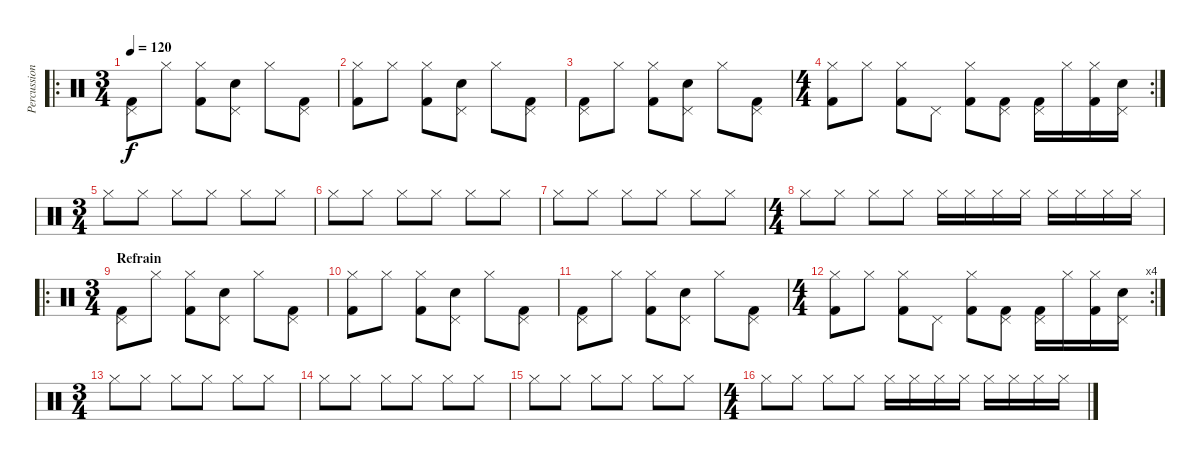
\track ("Percussions" "Percussion") {instrument percussion}
\staff {score}
\articulation defaults
\ro
\ts (3 4)
\tempo 120
\clef neutral
\ks c
("Kick (hit) 2" "Pedal Hi-Hat (hit)").8{dy f} "Hi-Hat (closed)".8 ("Kick (hit) 2" "Hi-Hat (closed)").8 ("Snare (hit) 2" "Pedal Hi-Hat (hit)").8 "Hi-Hat (closed)".8 ("Kick (hit) 2" "Pedal Hi-Hat (hit)").8 |
("Kick (hit) 2" "Hi-Hat (closed)").8 "Hi-Hat (closed)".8 ("Kick (hit) 2" "Hi-Hat (closed)").8 ("Snare (hit) 2" "Pedal Hi-Hat (hit)").8 "Hi-Hat (closed)".8 ("Kick (hit) 2" "Pedal Hi-Hat (hit)").8 |
("Kick (hit) 2" "Pedal Hi-Hat (hit)").8 "Hi-Hat (closed)".8 ("Kick (hit) 2" "Hi-Hat (closed)").8 ("Snare (hit) 2" "Pedal Hi-Hat (hit)").8 "Hi-Hat (closed)".8 ("Kick (hit) 2" "Pedal Hi-Hat (hit)").8 |
\rc 2
\ts (4 4)
("Kick (hit) 2" "Hi-Hat (closed)").8 "Hi-Hat (closed)".8 ("Kick (hit) 2" "Hi-Hat (closed)").8 "Pedal Hi-Hat (hit)".8 ("Kick (hit) 2" "Hi-Hat (closed)").8 ("Kick (hit) 2" "Pedal Hi-Hat (hit)").8 ("Kick (hit) 2" "Pedal Hi-Hat (hit)").16 "Hi-Hat (closed)".16 ("Kick (hit) 2" "Hi-Hat (closed)").16 ("Snare (hit) 2" "Pedal Hi-Hat (hit)").16 |
\ts (3 4)
"Hi-Hat (closed)".8 "Hi-Hat (closed)".8 "Hi-Hat (closed)".8 "Hi-Hat (closed)".8 "Hi-Hat (closed)".8 "Hi-Hat (closed)".8 |
"Hi-Hat (closed)".8 "Hi-Hat (closed)".8 "Hi-Hat (closed)".8 "Hi-Hat (closed)".8 "Hi-Hat (closed)".8 "Hi-Hat (closed)".8 |
"Hi-Hat (closed)".8 "Hi-Hat (closed)".8 "Hi-Hat (closed)".8 "Hi-Hat (closed)".8 "Hi-Hat (closed)".8 "Hi-Hat (closed)".8 |
\ts (4 4)
"Hi-Hat (closed)".8 "Hi-Hat (closed)".8 "Hi-Hat (closed)".8 "Hi-Hat (closed)".8 "Hi-Hat (closed)".16 "Hi-Hat (closed)".16 "Hi-Hat (closed)".16 "Hi-Hat (closed)".16 "Hi-Hat (closed)".16 "Hi-Hat (closed)".16 "Hi-Hat (closed)".16 "Hi-Hat (closed)".16 |
\ro
\ts (3 4)
\section ("" "Refrain")
("Kick (hit) 2" "Pedal Hi-Hat (hit)").8 "Hi-Hat (closed)".8 ("Kick (hit) 2" "Hi-Hat (closed)").8 ("Snare (hit) 2" "Pedal Hi-Hat (hit)").8 "Hi-Hat (closed)".8 ("Kick (hit) 2" "Pedal Hi-Hat (hit)").8 |
("Kick (hit) 2" "Hi-Hat (closed)").8 "Hi-Hat (closed)".8 ("Kick (hit) 2" "Hi-Hat (closed)").8 ("Snare (hit) 2" "Pedal Hi-Hat (hit)").8 "Hi-Hat (closed)".8 ("Kick (hit) 2" "Pedal Hi-Hat (hit)").8 |
("Kick (hit) 2" "Pedal Hi-Hat (hit)").8 "Hi-Hat (closed)".8 ("Kick (hit) 2" "Hi-Hat (closed)").8 ("Snare (hit) 2" "Pedal Hi-Hat (hit)").8 "Hi-Hat (closed)".8 ("Kick (hit) 2" "Pedal Hi-Hat (hit)").8 |
\rc 4
\ts (4 4)
("Kick (hit) 2" "Hi-Hat (closed)").8 "Hi-Hat (closed)".8 ("Kick (hit) 2" "Hi-Hat (closed)").8 "Pedal Hi-Hat (hit)".8 ("Kick (hit) 2" "Hi-Hat (closed)").8 ("Kick (hit) 2" "Pedal Hi-Hat (hit)").8 ("Kick (hit) 2" "Pedal Hi-Hat (hit)").16 "Hi-Hat (closed)".16 ("Kick (hit) 2" "Hi-Hat (closed)").16 ("Snare (hit) 2" "Pedal Hi-Hat (hit)").16 |
\ts (3 4)
"Hi-Hat (closed)".8 "Hi-Hat (closed)".8 "Hi-Hat (closed)".8 "Hi-Hat (closed)".8 "Hi-Hat (closed)".8 "Hi-Hat (closed)".8 |
"Hi-Hat (closed)".8 "Hi-Hat (closed)".8 "Hi-Hat (closed)".8 "Hi-Hat (closed)".8 "Hi-Hat (closed)".8 "Hi-Hat (closed)".8 |
"Hi-Hat (closed)".8 "Hi-Hat (closed)".8 "Hi-Hat (closed)".8 "Hi-Hat (closed)".8 "Hi-Hat (closed)".8 "Hi-Hat (closed)".8 |
\ts (4 4)
"Hi-Hat (closed)".8 "Hi-Hat (closed)".8 "Hi-Hat (closed)".8 "Hi-Hat (closed)".8 "Hi-Hat (closed)".16 "Hi-Hat (closed)".16 "Hi-Hat (closed)".16 "Hi-Hat (closed)".16 "Hi-Hat (closed)".16 "Hi-Hat (closed)".16 "Hi-Hat (closed)".16 "Hi-Hat (closed)".16
